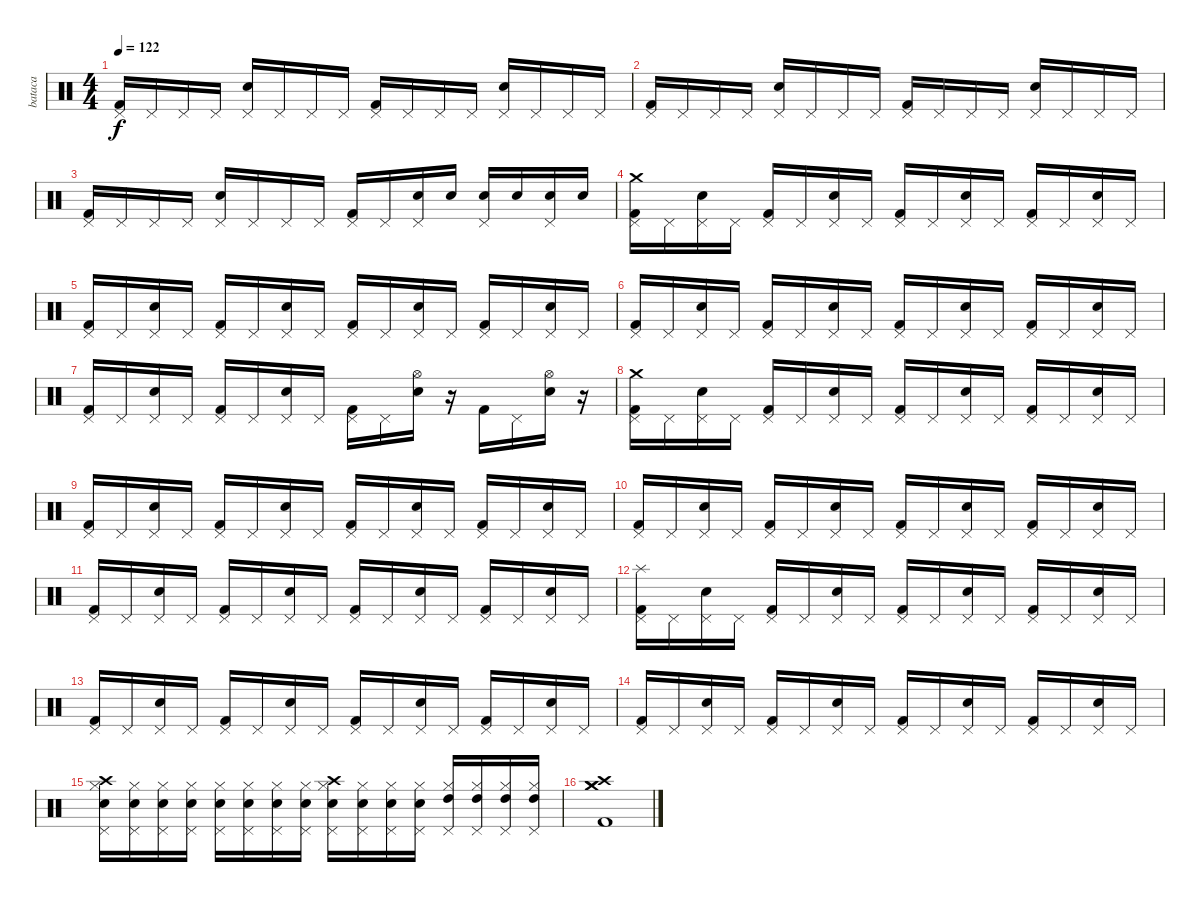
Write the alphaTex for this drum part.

\track ("bataca" "bataca") {instrument percussion}
\staff {score}
\articulation defaults
\ts (4 4)
\tempo 122
\clef neutral
\ks c
("Kick (hit) 2" "Pedal Hi-Hat (hit)").16{dy f} "Pedal Hi-Hat (hit)".16 "Pedal Hi-Hat (hit)".16 "Pedal Hi-Hat (hit)".16 ("Electric Snare (hit)" "Pedal Hi-Hat (hit)").16 "Pedal Hi-Hat (hit)".16 "Pedal Hi-Hat (hit)".16 "Pedal Hi-Hat (hit)".16 ("Kick (hit) 2" "Pedal Hi-Hat (hit)").16 "Pedal Hi-Hat (hit)".16 "Pedal Hi-Hat (hit)".16 "Pedal Hi-Hat (hit)".16 ("Electric Snare (hit)" "Pedal Hi-Hat (hit)").16 "Pedal Hi-Hat (hit)".16 "Pedal Hi-Hat (hit)".16 "Pedal Hi-Hat (hit)".16 |
("Kick (hit) 2" "Pedal Hi-Hat (hit)").16 "Pedal Hi-Hat (hit)".16 "Pedal Hi-Hat (hit)".16 "Pedal Hi-Hat (hit)".16 ("Electric Snare (hit)" "Pedal Hi-Hat (hit)").16 "Pedal Hi-Hat (hit)".16 "Pedal Hi-Hat (hit)".16 "Pedal Hi-Hat (hit)".16 ("Kick (hit) 2" "Pedal Hi-Hat (hit)").16 "Pedal Hi-Hat (hit)".16 "Pedal Hi-Hat (hit)".16 "Pedal Hi-Hat (hit)".16 ("Electric Snare (hit)" "Pedal Hi-Hat (hit)").16 "Pedal Hi-Hat (hit)".16 "Pedal Hi-Hat (hit)".16 "Pedal Hi-Hat (hit)".16 |
("Kick (hit) 2" "Pedal Hi-Hat (hit)").16 "Pedal Hi-Hat (hit)".16 "Pedal Hi-Hat (hit)".16 "Pedal Hi-Hat (hit)".16 ("Electric Snare (hit)" "Pedal Hi-Hat (hit)").16 "Pedal Hi-Hat (hit)".16 "Pedal Hi-Hat (hit)".16 "Pedal Hi-Hat (hit)".16 ("Kick (hit) 2" "Pedal Hi-Hat (hit)").16 "Pedal Hi-Hat (hit)".16 ("Snare (hit) 2" "Pedal Hi-Hat (hit)").16 "Snare (hit) 2".16 ("Snare (hit) 2" "Pedal Hi-Hat (hit)").16 "Snare (hit) 2".16 ("Snare (hit) 2" "Pedal Hi-Hat (hit)").16 "Snare (hit) 2".16 |
("Kick (hit) 2" "Crash medium (hit)" "Pedal Hi-Hat (hit)").16 "Pedal Hi-Hat (hit)".16 ("Electric Snare (hit)" "Pedal Hi-Hat (hit)").16 "Pedal Hi-Hat (hit)".16 ("Kick (hit) 2" "Pedal Hi-Hat (hit)").16 "Pedal Hi-Hat (hit)".16 ("Electric Snare (hit)" "Pedal Hi-Hat (hit)").16 "Pedal Hi-Hat (hit)".16 ("Kick (hit) 2" "Pedal Hi-Hat (hit)").16 "Pedal Hi-Hat (hit)".16 ("Electric Snare (hit)" "Pedal Hi-Hat (hit)").16 "Pedal Hi-Hat (hit)".16 ("Kick (hit) 2" "Pedal Hi-Hat (hit)").16 "Pedal Hi-Hat (hit)".16 ("Electric Snare (hit)" "Pedal Hi-Hat (hit)").16 "Pedal Hi-Hat (hit)".16 |
("Kick (hit) 2" "Pedal Hi-Hat (hit)").16 "Pedal Hi-Hat (hit)".16 ("Electric Snare (hit)" "Pedal Hi-Hat (hit)").16 "Pedal Hi-Hat (hit)".16 ("Kick (hit) 2" "Pedal Hi-Hat (hit)").16 "Pedal Hi-Hat (hit)".16 ("Electric Snare (hit)" "Pedal Hi-Hat (hit)").16 "Pedal Hi-Hat (hit)".16 ("Kick (hit) 2" "Pedal Hi-Hat (hit)").16 "Pedal Hi-Hat (hit)".16 ("Electric Snare (hit)" "Pedal Hi-Hat (hit)").16 "Pedal Hi-Hat (hit)".16 ("Kick (hit) 2" "Pedal Hi-Hat (hit)").16 "Pedal Hi-Hat (hit)".16 ("Electric Snare (hit)" "Pedal Hi-Hat (hit)").16 "Pedal Hi-Hat (hit)".16 |
("Kick (hit) 2" "Pedal Hi-Hat (hit)").16 "Pedal Hi-Hat (hit)".16 ("Electric Snare (hit)" "Pedal Hi-Hat (hit)").16 "Pedal Hi-Hat (hit)".16 ("Kick (hit) 2" "Pedal Hi-Hat (hit)").16 "Pedal Hi-Hat (hit)".16 ("Electric Snare (hit)" "Pedal Hi-Hat (hit)").16 "Pedal Hi-Hat (hit)".16 ("Kick (hit) 2" "Pedal Hi-Hat (hit)").16 "Pedal Hi-Hat (hit)".16 ("Electric Snare (hit)" "Pedal Hi-Hat (hit)").16 "Pedal Hi-Hat (hit)".16 ("Kick (hit) 2" "Pedal Hi-Hat (hit)").16 "Pedal Hi-Hat (hit)".16 ("Electric Snare (hit)" "Pedal Hi-Hat (hit)").16 "Pedal Hi-Hat (hit)".16 |
("Kick (hit) 2" "Pedal Hi-Hat (hit)").16 "Pedal Hi-Hat (hit)".16 ("Electric Snare (hit)" "Pedal Hi-Hat (hit)").16 "Pedal Hi-Hat (hit)".16 ("Kick (hit) 2" "Pedal Hi-Hat (hit)").16 "Pedal Hi-Hat (hit)".16 ("Electric Snare (hit)" "Pedal Hi-Hat (hit)").16 "Pedal Hi-Hat (hit)".16 ("Kick (hit) 2" "Pedal Hi-Hat (hit)").16 "Pedal Hi-Hat (hit)".16 ("Electric Snare (hit)" "Hi-Hat (open)").16 r.16 "Kick (hit) 2".16 "Pedal Hi-Hat (hit)".16 ("Electric Snare (hit)" "Hi-Hat (open)").16 r.16 |
("Crash medium (hit)" "Kick (hit) 2" "Pedal Hi-Hat (hit)").16 "Pedal Hi-Hat (hit)".16 ("Electric Snare (hit)" "Pedal Hi-Hat (hit)").16 "Pedal Hi-Hat (hit)".16 ("Kick (hit) 2" "Pedal Hi-Hat (hit)").16 "Pedal Hi-Hat (hit)".16 ("Electric Snare (hit)" "Pedal Hi-Hat (hit)").16 "Pedal Hi-Hat (hit)".16 ("Kick (hit) 2" "Pedal Hi-Hat (hit)").16 "Pedal Hi-Hat (hit)".16 ("Electric Snare (hit)" "Pedal Hi-Hat (hit)").16 "Pedal Hi-Hat (hit)".16 ("Kick (hit) 2" "Pedal Hi-Hat (hit)").16 "Pedal Hi-Hat (hit)".16 ("Electric Snare (hit)" "Pedal Hi-Hat (hit)").16 "Pedal Hi-Hat (hit)".16 |
("Kick (hit) 2" "Pedal Hi-Hat (hit)").16 "Pedal Hi-Hat (hit)".16 ("Electric Snare (hit)" "Pedal Hi-Hat (hit)").16 "Pedal Hi-Hat (hit)".16 ("Kick (hit) 2" "Pedal Hi-Hat (hit)").16 "Pedal Hi-Hat (hit)".16 ("Electric Snare (hit)" "Pedal Hi-Hat (hit)").16 "Pedal Hi-Hat (hit)".16 ("Kick (hit) 2" "Pedal Hi-Hat (hit)").16 "Pedal Hi-Hat (hit)".16 ("Electric Snare (hit)" "Pedal Hi-Hat (hit)").16 "Pedal Hi-Hat (hit)".16 ("Kick (hit) 2" "Pedal Hi-Hat (hit)").16 "Pedal Hi-Hat (hit)".16 ("Electric Snare (hit)" "Pedal Hi-Hat (hit)").16 "Pedal Hi-Hat (hit)".16 |
("Kick (hit) 2" "Pedal Hi-Hat (hit)").16 "Pedal Hi-Hat (hit)".16 ("Electric Snare (hit)" "Pedal Hi-Hat (hit)").16 "Pedal Hi-Hat (hit)".16 ("Kick (hit) 2" "Pedal Hi-Hat (hit)").16 "Pedal Hi-Hat (hit)".16 ("Electric Snare (hit)" "Pedal Hi-Hat (hit)").16 "Pedal Hi-Hat (hit)".16 ("Kick (hit) 2" "Pedal Hi-Hat (hit)").16 "Pedal Hi-Hat (hit)".16 ("Electric Snare (hit)" "Pedal Hi-Hat (hit)").16 "Pedal Hi-Hat (hit)".16 ("Kick (hit) 2" "Pedal Hi-Hat (hit)").16 "Pedal Hi-Hat (hit)".16 ("Electric Snare (hit)" "Pedal Hi-Hat (hit)").16 "Pedal Hi-Hat (hit)".16 |
("Kick (hit) 2" "Pedal Hi-Hat (hit)").16 "Pedal Hi-Hat (hit)".16 ("Electric Snare (hit)" "Pedal Hi-Hat (hit)").16 "Pedal Hi-Hat (hit)".16 ("Kick (hit) 2" "Pedal Hi-Hat (hit)").16 "Pedal Hi-Hat (hit)".16 ("Electric Snare (hit)" "Pedal Hi-Hat (hit)").16 "Pedal Hi-Hat (hit)".16 ("Kick (hit) 2" "Pedal Hi-Hat (hit)").16 "Pedal Hi-Hat (hit)".16 ("Electric Snare (hit)" "Pedal Hi-Hat (hit)").16 "Pedal Hi-Hat (hit)".16 ("Kick (hit) 2" "Pedal Hi-Hat (hit)").16 "Pedal Hi-Hat (hit)".16 ("Electric Snare (hit)" "Pedal Hi-Hat (hit)").16 "Pedal Hi-Hat (hit)".16 |
("Splash (hit)" "Kick (hit) 2" "Pedal Hi-Hat (hit)").16 "Pedal Hi-Hat (hit)".16 ("Electric Snare (hit)" "Pedal Hi-Hat (hit)").16 "Pedal Hi-Hat (hit)".16 ("Kick (hit) 2" "Pedal Hi-Hat (hit)").16 "Pedal Hi-Hat (hit)".16 ("Electric Snare (hit)" "Pedal Hi-Hat (hit)").16 "Pedal Hi-Hat (hit)".16 ("Kick (hit) 2" "Pedal Hi-Hat (hit)").16 "Pedal Hi-Hat (hit)".16 ("Electric Snare (hit)" "Pedal Hi-Hat (hit)").16 "Pedal Hi-Hat (hit)".16 ("Kick (hit) 2" "Pedal Hi-Hat (hit)").16 "Pedal Hi-Hat (hit)".16 ("Electric Snare (hit)" "Pedal Hi-Hat (hit)").16 "Pedal Hi-Hat (hit)".16 |
("Kick (hit) 2" "Pedal Hi-Hat (hit)").16 "Pedal Hi-Hat (hit)".16 ("Electric Snare (hit)" "Pedal Hi-Hat (hit)").16 "Pedal Hi-Hat (hit)".16 ("Kick (hit) 2" "Pedal Hi-Hat (hit)").16 "Pedal Hi-Hat (hit)".16 ("Electric Snare (hit)" "Pedal Hi-Hat (hit)").16 "Pedal Hi-Hat (hit)".16 ("Kick (hit) 2" "Pedal Hi-Hat (hit)").16 "Pedal Hi-Hat (hit)".16 ("Electric Snare (hit)" "Pedal Hi-Hat (hit)").16 "Pedal Hi-Hat (hit)".16 ("Kick (hit) 2" "Pedal Hi-Hat (hit)").16 "Pedal Hi-Hat (hit)".16 ("Electric Snare (hit)" "Pedal Hi-Hat (hit)").16 "Pedal Hi-Hat (hit)".16 |
("Kick (hit) 2" "Pedal Hi-Hat (hit)").16 "Pedal Hi-Hat (hit)".16 ("Electric Snare (hit)" "Pedal Hi-Hat (hit)").16 "Pedal Hi-Hat (hit)".16 ("Kick (hit) 2" "Pedal Hi-Hat (hit)").16 "Pedal Hi-Hat (hit)".16 ("Electric Snare (hit)" "Pedal Hi-Hat (hit)").16 "Pedal Hi-Hat (hit)".16 ("Kick (hit) 2" "Pedal Hi-Hat (hit)").16 "Pedal Hi-Hat (hit)".16 ("Electric Snare (hit)" "Pedal Hi-Hat (hit)").16 "Pedal Hi-Hat (hit)".16 ("Kick (hit) 2" "Pedal Hi-Hat (hit)").16 "Pedal Hi-Hat (hit)".16 ("Electric Snare (hit)" "Pedal Hi-Hat (hit)").16 "Pedal Hi-Hat (hit)".16 |
("Hi-Hat (closed)" "Electric Snare (hit)" "Pedal Hi-Hat (hit)" "Crash high (hit)").16 ("Hi-Hat (closed)" "Electric Snare (hit)" "Pedal Hi-Hat (hit)").16 ("Hi-Hat (closed)" "Electric Snare (hit)" "Pedal Hi-Hat (hit)").16 ("Hi-Hat (closed)" "Electric Snare (hit)" "Pedal Hi-Hat (hit)").16 ("Hi-Hat (closed)" "Electric Snare (hit)" "Pedal Hi-Hat (hit)").16 ("Hi-Hat (closed)" "Electric Snare (hit)" "Pedal Hi-Hat (hit)").16 ("Hi-Hat (closed)" "Electric Snare (hit)" "Pedal Hi-Hat (hit)").16 ("Hi-Hat (closed)" "Electric Snare (hit)" "Pedal Hi-Hat (hit)").16 ("Hi-Hat (closed)" "Snare (hit) 2" "Pedal Hi-Hat (hit)" "Crash high (hit)").16 ("Hi-Hat (closed)" "Snare (hit) 2" "Pedal Hi-Hat (hit)").16 ("Hi-Hat (closed)" "Snare (hit) 2" "Pedal Hi-Hat (hit)").16 ("Hi-Hat (closed)" "Snare (hit) 2" "Pedal Hi-Hat (hit)").16 ("Hi-Hat (closed)" "High Tom (hit)" "Pedal Hi-Hat (hit)").16 ("Hi-Hat (closed)" "High Tom (hit)" "Pedal Hi-Hat (hit)").16 ("Hi-Hat (closed)" "High Tom (hit)" "Pedal Hi-Hat (hit)").16 ("Hi-Hat (closed)" "High Tom (hit)" "Pedal Hi-Hat (hit)").16 |
("Crash medium (hit)" "Kick (hit) 2" "Crash medium (hit)" "Crash high (hit)").1
